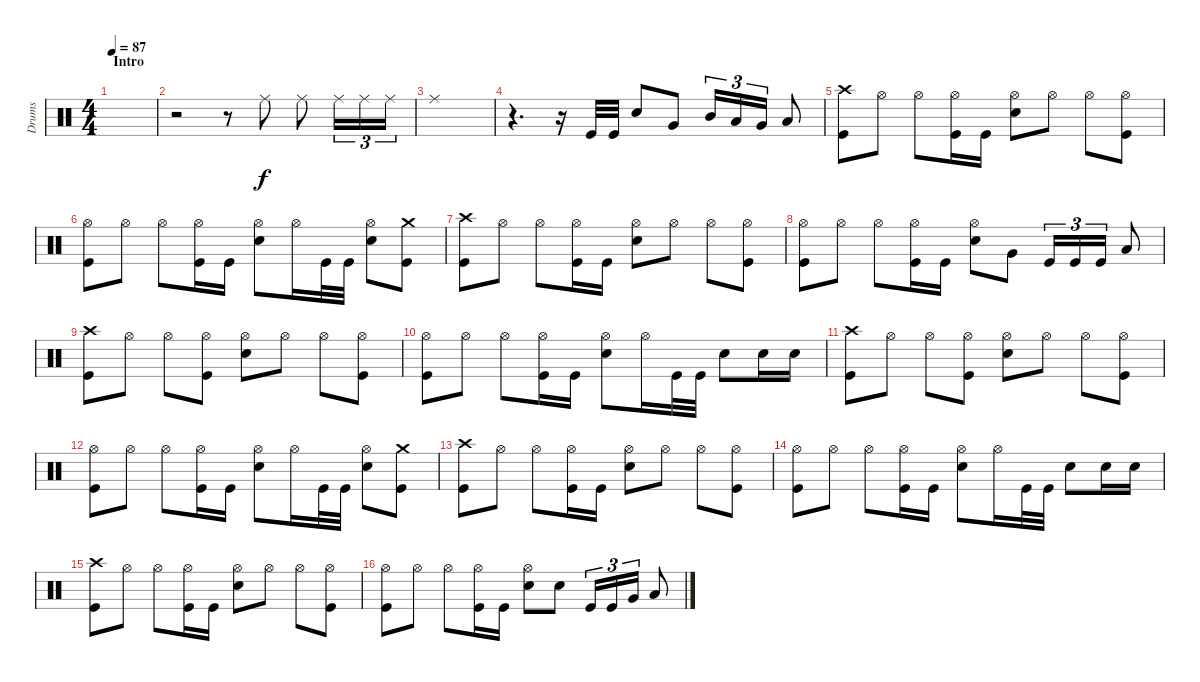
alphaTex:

\track ("Drums" "Drums") {instrument percussion}
\staff {score}
\articulation defaults
\ts (4 4)
\section ("" "Intro")
\tempo 87
\clef neutral
\ks c
|
r.2 r.8 "Ride (middle)".8 "Ride (middle)".8 "Ride (middle)".16{tu (3 2)} "Ride (middle)".16{tu (3 2)} "Ride (middle)".16{tu (3 2)} |
"Ride (middle)".1 |
r.4{d} r.16 "Kick (hit)".32 "Kick (hit)".32 "Snare (hit) 2".8 "Very Low Tom (hit)".8 "Mid Tom (hit)".16{tu (3 2)} "Low Tom (hit)".16{tu (3 2)} "Very Low Tom (hit)".16{tu (3 2)} "Low Floor Tom (hit)".8 |
("Crash high (hit)" "Kick (hit)").8 "Hi-Hat (open)".8 "Hi-Hat (open)".8 ("Hi-Hat (open)" "Kick (hit)").16 "Kick (hit)".16 ("Hi-Hat (open)" "Snare (hit) 2").8 "Hi-Hat (open)".8 "Hi-Hat (open)".8 ("Hi-Hat (open)" "Kick (hit)").8 |
("Hi-Hat (open)" "Kick (hit)").8 "Hi-Hat (open)".8 "Hi-Hat (open)".8 ("Hi-Hat (open)" "Kick (hit)").16 "Kick (hit)".16 ("Hi-Hat (open)" "Snare (hit) 2").8 "Hi-Hat (open)".16 "Kick (hit)".32 "Kick (hit)".32 ("Hi-Hat (open)" "Snare (hit) 2").8 ("Crash medium (hit)" "Kick (hit)").8 |
("Crash high (hit)" "Kick (hit)").8 "Hi-Hat (open)".8 "Hi-Hat (open)".8 ("Hi-Hat (open)" "Kick (hit)").16 "Kick (hit)".16 ("Hi-Hat (open)" "Snare (hit) 2").8 "Hi-Hat (open)".8 "Hi-Hat (open)".8 ("Hi-Hat (open)" "Kick (hit)").8 |
("Hi-Hat (open)" "Kick (hit)").8 "Hi-Hat (open)".8 "Hi-Hat (open)".8 ("Hi-Hat (open)" "Kick (hit)").16 "Kick (hit)".16 ("Hi-Hat (open)" "Snare (hit) 2").8 "Very Low Tom (hit)".8 "Kick (hit)".16{tu (3 2)} "Kick (hit)".16{tu (3 2)} "Kick (hit)".16{tu (3 2)} "Low Floor Tom (hit)".8 |
("Crash high (hit)" "Kick (hit)").8 "Hi-Hat (open)".8 "Hi-Hat (open)".8 ("Hi-Hat (open)" "Kick (hit)").8 ("Hi-Hat (open)" "Snare (hit) 2").8 "Hi-Hat (open)".8 "Hi-Hat (open)".8 ("Hi-Hat (open)" "Kick (hit)").8 |
("Hi-Hat (open)" "Kick (hit)").8 "Hi-Hat (open)".8 "Hi-Hat (open)".8 ("Hi-Hat (open)" "Kick (hit)").16 "Kick (hit)".16 ("Hi-Hat (open)" "Snare (hit) 2").8 "Hi-Hat (open)".16 "Kick (hit)".32 "Kick (hit)".32 "Snare (hit) 2".8 "Snare (hit) 2".16 "Snare (hit) 2".16 |
("Crash high (hit)" "Kick (hit)").8 "Hi-Hat (open)".8 "Hi-Hat (open)".8 ("Hi-Hat (open)" "Kick (hit)").8 ("Hi-Hat (open)" "Snare (hit) 2").8 "Hi-Hat (open)".8 "Hi-Hat (open)".8 ("Hi-Hat (open)" "Kick (hit)").8 |
("Hi-Hat (open)" "Kick (hit)").8 "Hi-Hat (open)".8 "Hi-Hat (open)".8 ("Hi-Hat (open)" "Kick (hit)").16 "Kick (hit)".16 ("Hi-Hat (open)" "Snare (hit) 2").8 "Hi-Hat (open)".16 "Kick (hit)".32 "Kick (hit)".32 ("Hi-Hat (open)" "Snare (hit) 2").8 ("Crash medium (hit)" "Kick (hit)").8 |
("Crash high (hit)" "Kick (hit)").8 "Hi-Hat (open)".8 "Hi-Hat (open)".8 ("Hi-Hat (open)" "Kick (hit)").16 "Kick (hit)".16 ("Hi-Hat (open)" "Snare (hit) 2").8 "Hi-Hat (open)".8 "Hi-Hat (open)".8 ("Hi-Hat (open)" "Kick (hit)").8 |
("Hi-Hat (open)" "Kick (hit)").8 "Hi-Hat (open)".8 "Hi-Hat (open)".8 ("Hi-Hat (open)" "Kick (hit)").16 "Kick (hit)".16 ("Hi-Hat (open)" "Snare (hit) 2").8 "Hi-Hat (open)".16 "Kick (hit)".32 "Kick (hit)".32 "Snare (hit) 2".8 "Snare (hit) 2".16 "Snare (hit) 2".16 |
("Crash high (hit)" "Kick (hit)").8 "Hi-Hat (open)".8 "Hi-Hat (open)".8 ("Hi-Hat (open)" "Kick (hit)").16 "Kick (hit)".16 ("Hi-Hat (open)" "Snare (hit) 2").8 "Hi-Hat (open)".8 "Hi-Hat (open)".8 ("Hi-Hat (open)" "Kick (hit)").8 |
("Hi-Hat (open)" "Kick (hit)").8 "Hi-Hat (open)".8 "Hi-Hat (open)".8 ("Hi-Hat (open)" "Kick (hit)").16 "Kick (hit)".16 ("Hi-Hat (open)" "Snare (hit) 2").8 "Snare (hit) 2".8 "Kick (hit)".16{tu (3 2)} "Kick (hit)".16{tu (3 2)} "Very Low Tom (hit)".16{tu (3 2)} "Low Floor Tom (hit)".8
